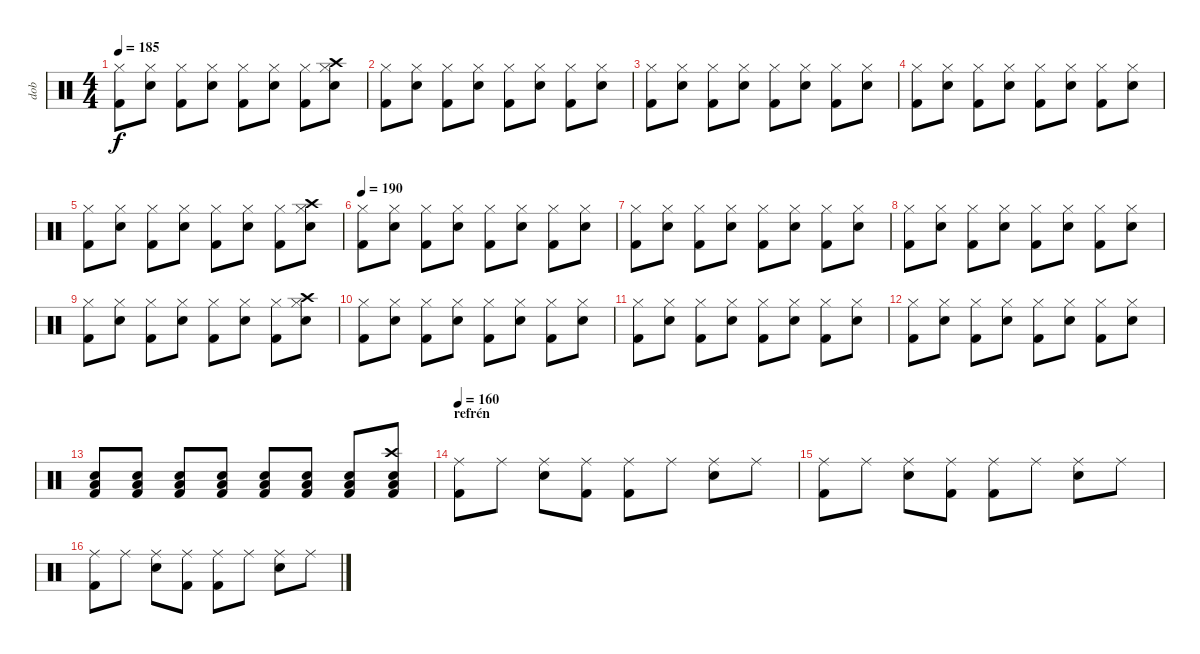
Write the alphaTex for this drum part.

\track ("dob" "dob") {instrument percussion}
\staff {score}
\articulation defaults
\ts (4 4)
\tempo 185
\clef neutral
\ks c
("Hi-Hat (closed)" "Kick (hit) 2").8{dy f} ("Hi-Hat (closed)" "Snare (hit) 2").8 ("Hi-Hat (closed)" "Kick (hit) 2").8 ("Hi-Hat (closed)" "Snare (hit) 2").8 ("Hi-Hat (closed)" "Kick (hit) 2").8 ("Hi-Hat (closed)" "Snare (hit) 2").8 ("Hi-Hat (closed)" "Kick (hit) 2").8 ("Hi-Hat (closed)" "Snare (hit) 2" "Crash high (hit)").8 |
("Hi-Hat (closed)" "Kick (hit) 2").8 ("Hi-Hat (closed)" "Snare (hit) 2").8 ("Hi-Hat (closed)" "Kick (hit) 2").8 ("Hi-Hat (closed)" "Snare (hit) 2").8 ("Hi-Hat (closed)" "Kick (hit) 2").8 ("Hi-Hat (closed)" "Snare (hit) 2").8 ("Hi-Hat (closed)" "Kick (hit) 2").8 ("Hi-Hat (closed)" "Snare (hit) 2").8 |
("Hi-Hat (closed)" "Kick (hit) 2").8 ("Hi-Hat (closed)" "Snare (hit) 2").8 ("Hi-Hat (closed)" "Kick (hit) 2").8 ("Hi-Hat (closed)" "Snare (hit) 2").8 ("Hi-Hat (closed)" "Kick (hit) 2").8 ("Hi-Hat (closed)" "Snare (hit) 2").8 ("Hi-Hat (closed)" "Kick (hit) 2").8 ("Hi-Hat (closed)" "Snare (hit) 2").8 |
("Hi-Hat (closed)" "Kick (hit) 2").8 ("Hi-Hat (closed)" "Snare (hit) 2").8 ("Hi-Hat (closed)" "Kick (hit) 2").8 ("Hi-Hat (closed)" "Snare (hit) 2").8 ("Hi-Hat (closed)" "Kick (hit) 2").8 ("Hi-Hat (closed)" "Snare (hit) 2").8 ("Hi-Hat (closed)" "Kick (hit) 2").8 ("Hi-Hat (closed)" "Snare (hit) 2").8 |
("Hi-Hat (closed)" "Kick (hit) 2").8 ("Hi-Hat (closed)" "Snare (hit) 2").8 ("Hi-Hat (closed)" "Kick (hit) 2").8 ("Hi-Hat (closed)" "Snare (hit) 2").8 ("Hi-Hat (closed)" "Kick (hit) 2").8 ("Hi-Hat (closed)" "Snare (hit) 2").8 ("Hi-Hat (closed)" "Kick (hit) 2").8 ("Hi-Hat (closed)" "Snare (hit) 2" "Crash high (hit)").8 |
\tempo 190
("Hi-Hat (closed)" "Kick (hit) 2").8 ("Hi-Hat (closed)" "Snare (hit) 2").8 ("Hi-Hat (closed)" "Kick (hit) 2").8 ("Hi-Hat (closed)" "Snare (hit) 2").8 ("Hi-Hat (closed)" "Kick (hit) 2").8 ("Hi-Hat (closed)" "Snare (hit) 2").8 ("Hi-Hat (closed)" "Kick (hit) 2").8 ("Hi-Hat (closed)" "Snare (hit) 2").8 |
("Hi-Hat (closed)" "Kick (hit) 2").8 ("Hi-Hat (closed)" "Snare (hit) 2").8 ("Hi-Hat (closed)" "Kick (hit) 2").8 ("Hi-Hat (closed)" "Snare (hit) 2").8 ("Hi-Hat (closed)" "Kick (hit) 2").8 ("Hi-Hat (closed)" "Snare (hit) 2").8 ("Hi-Hat (closed)" "Kick (hit) 2").8 ("Hi-Hat (closed)" "Snare (hit) 2").8 |
("Hi-Hat (closed)" "Kick (hit) 2").8 ("Hi-Hat (closed)" "Snare (hit) 2").8 ("Hi-Hat (closed)" "Kick (hit) 2").8 ("Hi-Hat (closed)" "Snare (hit) 2").8 ("Hi-Hat (closed)" "Kick (hit) 2").8 ("Hi-Hat (closed)" "Snare (hit) 2").8 ("Hi-Hat (closed)" "Kick (hit) 2").8 ("Hi-Hat (closed)" "Snare (hit) 2").8 |
("Hi-Hat (closed)" "Kick (hit) 2").8 ("Hi-Hat (closed)" "Snare (hit) 2").8 ("Hi-Hat (closed)" "Kick (hit) 2").8 ("Hi-Hat (closed)" "Snare (hit) 2").8 ("Hi-Hat (closed)" "Kick (hit) 2").8 ("Hi-Hat (closed)" "Snare (hit) 2").8 ("Hi-Hat (closed)" "Kick (hit) 2").8 ("Hi-Hat (closed)" "Snare (hit) 2" "Crash high (hit)").8 |
("Hi-Hat (closed)" "Kick (hit) 2").8 ("Hi-Hat (closed)" "Snare (hit) 2").8 ("Hi-Hat (closed)" "Kick (hit) 2").8 ("Hi-Hat (closed)" "Snare (hit) 2").8 ("Hi-Hat (closed)" "Kick (hit) 2").8 ("Hi-Hat (closed)" "Snare (hit) 2").8 ("Hi-Hat (closed)" "Kick (hit) 2").8 ("Hi-Hat (closed)" "Snare (hit) 2").8 |
("Hi-Hat (closed)" "Kick (hit) 2").8 ("Hi-Hat (closed)" "Snare (hit) 2").8 ("Hi-Hat (closed)" "Kick (hit) 2").8 ("Hi-Hat (closed)" "Snare (hit) 2").8 ("Hi-Hat (closed)" "Kick (hit) 2").8 ("Hi-Hat (closed)" "Snare (hit) 2").8 ("Hi-Hat (closed)" "Kick (hit) 2").8 ("Hi-Hat (closed)" "Snare (hit) 2").8 |
("Hi-Hat (closed)" "Kick (hit) 2").8 ("Hi-Hat (closed)" "Snare (hit) 2").8 ("Hi-Hat (closed)" "Kick (hit) 2").8 ("Hi-Hat (closed)" "Snare (hit) 2").8 ("Hi-Hat (closed)" "Kick (hit) 2").8 ("Hi-Hat (closed)" "Snare (hit) 2").8 ("Hi-Hat (closed)" "Kick (hit) 2").8 ("Hi-Hat (closed)" "Snare (hit) 2").8 |
("Snare (hit) 2" "Kick (hit) 2" "Low Tom (hit)").8 ("Snare (hit) 2" "Kick (hit) 2" "Low Tom (hit)").8 ("Snare (hit) 2" "Kick (hit) 2" "Low Tom (hit)").8 ("Snare (hit) 2" "Kick (hit) 2" "Low Tom (hit)").8 ("Snare (hit) 2" "Kick (hit) 2" "Low Tom (hit)").8 ("Snare (hit) 2" "Kick (hit) 2" "Low Tom (hit)").8 ("Snare (hit) 2" "Kick (hit) 2" "Low Tom (hit)").8 ("Snare (hit) 2" "Kick (hit) 2" "Low Tom (hit)" "Crash high (hit)").8 |
\section ("" "refrén")
\tempo 160
("Ride (middle)" "Kick (hit) 2").8 "Ride (middle)".8 ("Ride (middle)" "Snare (hit) 2").8 ("Ride (middle)" "Kick (hit) 2").8 ("Ride (middle)" "Kick (hit) 2").8 "Ride (middle)".8 ("Ride (middle)" "Snare (hit) 2").8 "Ride (middle)".8 |
("Ride (middle)" "Kick (hit) 2").8 "Ride (middle)".8 ("Ride (middle)" "Snare (hit) 2").8 ("Ride (middle)" "Kick (hit) 2").8 ("Ride (middle)" "Kick (hit) 2").8 "Ride (middle)".8 ("Ride (middle)" "Snare (hit) 2").8 "Ride (middle)".8 |
("Ride (middle)" "Kick (hit) 2").8 "Ride (middle)".8 ("Ride (middle)" "Snare (hit) 2").8 ("Ride (middle)" "Kick (hit) 2").8 ("Ride (middle)" "Kick (hit) 2").8 "Ride (middle)".8 ("Ride (middle)" "Snare (hit) 2").8 "Ride (middle)".8
